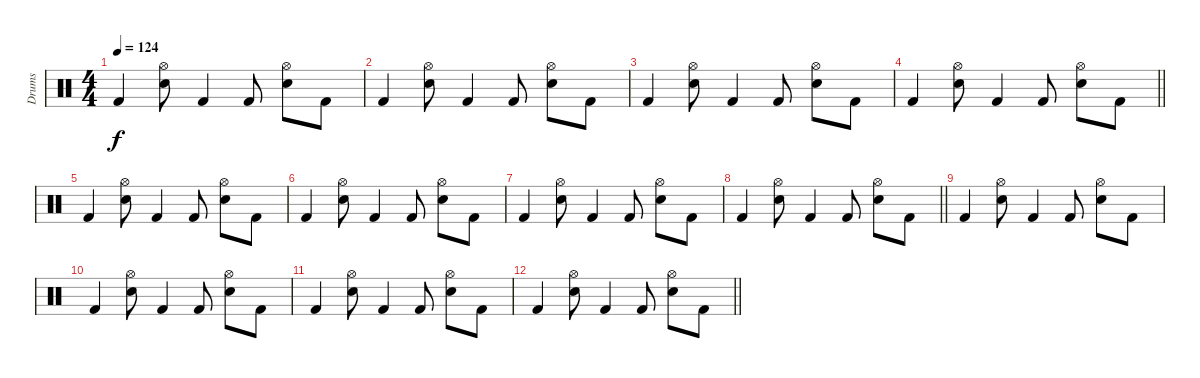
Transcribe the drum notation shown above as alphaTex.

\track ("Drums" "Drums") {instrument percussion}
\staff {score}
\articulation defaults
\ts (4 4)
\tempo 124
\clef neutral
\ks c "Kick (hit) 2".4{dy f}
("Hi-Hat (open)" "Snare (hit) 2").8 "Kick (hit) 2".4 "Kick (hit) 2".8 ("Hi-Hat (open)" "Snare (hit) 2").8 "Kick (hit) 2".8 |
"Kick (hit) 2".4 ("Hi-Hat (open)" "Snare (hit) 2").8 "Kick (hit) 2".4 "Kick (hit) 2".8 ("Hi-Hat (open)" "Snare (hit) 2").8 "Kick (hit) 2".8 |
"Kick (hit) 2".4 ("Hi-Hat (open)" "Snare (hit) 2").8 "Kick (hit) 2".4 "Kick (hit) 2".8 ("Hi-Hat (open)" "Snare (hit) 2").8 "Kick (hit) 2".8 |
\barLineRight lightlight "Kick (hit) 2".4
("Hi-Hat (open)" "Snare (hit) 2").8 "Kick (hit) 2".4 "Kick (hit) 2".8 ("Hi-Hat (open)" "Snare (hit) 2").8 "Kick (hit) 2".8 |
"Kick (hit) 2".4 ("Hi-Hat (open)" "Snare (hit) 2").8 "Kick (hit) 2".4 "Kick (hit) 2".8 ("Hi-Hat (open)" "Snare (hit) 2").8 "Kick (hit) 2".8 |
"Kick (hit) 2".4 ("Hi-Hat (open)" "Snare (hit) 2").8 "Kick (hit) 2".4 "Kick (hit) 2".8 ("Hi-Hat (open)" "Snare (hit) 2").8 "Kick (hit) 2".8 |
"Kick (hit) 2".4 ("Hi-Hat (open)" "Snare (hit) 2").8 "Kick (hit) 2".4 "Kick (hit) 2".8 ("Hi-Hat (open)" "Snare (hit) 2").8 "Kick (hit) 2".8 |
\barLineRight lightlight "Kick (hit) 2".4
("Hi-Hat (open)" "Snare (hit) 2").8 "Kick (hit) 2".4 "Kick (hit) 2".8 ("Hi-Hat (open)" "Snare (hit) 2").8 "Kick (hit) 2".8 |
"Kick (hit) 2".4 ("Hi-Hat (open)" "Snare (hit) 2").8 "Kick (hit) 2".4 "Kick (hit) 2".8 ("Hi-Hat (open)" "Snare (hit) 2").8 "Kick (hit) 2".8 |
"Kick (hit) 2".4 ("Hi-Hat (open)" "Snare (hit) 2").8 "Kick (hit) 2".4 "Kick (hit) 2".8 ("Hi-Hat (open)" "Snare (hit) 2").8 "Kick (hit) 2".8 |
"Kick (hit) 2".4 ("Hi-Hat (open)" "Snare (hit) 2").8 "Kick (hit) 2".4 "Kick (hit) 2".8 ("Hi-Hat (open)" "Snare (hit) 2").8 "Kick (hit) 2".8 |
\barLineRight lightlight "Kick (hit) 2".4
("Hi-Hat (open)" "Snare (hit) 2").8 "Kick (hit) 2".4 "Kick (hit) 2".8 ("Hi-Hat (open)" "Snare (hit) 2").8 "Kick (hit) 2".8
